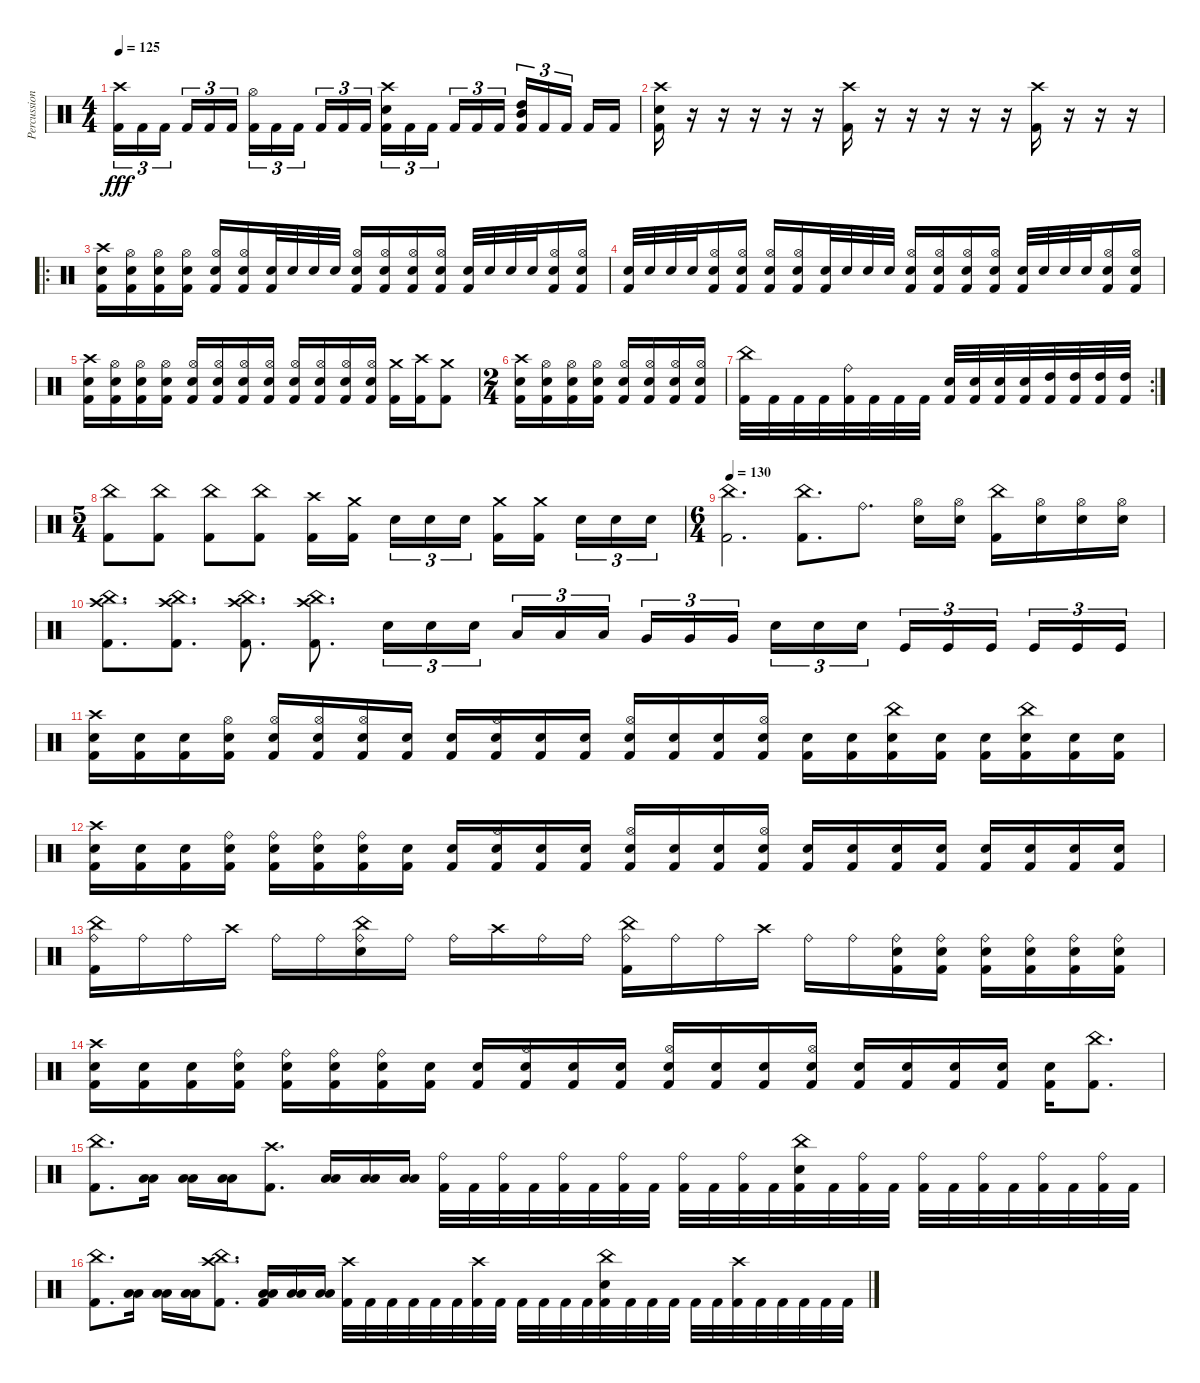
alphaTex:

\track ("Percussion" "Percussion") {instrument percussion}
\staff {score}
\articulation defaults
\ts (4 4)
\tempo 125
\clef neutral
\ks c
("Crash high (hit)" "Kick (hit) 2").16{tu (3 2) dy fff} "Kick (hit) 2".16{tu (3 2)} "Kick (hit) 2".16{tu (3 2) beam splitsecondary} "Kick (hit) 2".16{tu (3 2)} "Kick (hit) 2".16{tu (3 2)} "Kick (hit) 2".16{tu (3 2)} ("Hi-Hat (open)" "Kick (hit) 2").16{tu (3 2)} "Kick (hit) 2".16{tu (3 2)} "Kick (hit) 2".16{tu (3 2) beam splitsecondary} "Kick (hit) 2".16{tu (3 2)} "Kick (hit) 2".16{tu (3 2)} "Kick (hit) 2".16{tu (3 2)} ("Electric Snare (hit)" "Crash high (hit)" "Kick (hit) 2").16{tu (3 2)} "Kick (hit) 2".16{tu (3 2)} "Kick (hit) 2".16{tu (3 2) beam splitsecondary} "Kick (hit) 2".16{tu (3 2)} "Kick (hit) 2".16{tu (3 2)} "Kick (hit) 2".16{tu (3 2)} ("Mid Tom (hit)" "High Tom (hit)" "Kick (hit) 2").16{tu (3 2)} "Kick (hit) 2".16{tu (3 2)} "Kick (hit) 2".16{tu (3 2) beam splitsecondary} "Kick (hit) 2".16 "Kick (hit) 2".16 |
("Electric Snare (hit)" "Crash high (hit)" "Kick (hit) 2").16 r.16 r.16 r.16 r.16 r.16 ("Crash high (hit)" "Kick (hit) 2").16 r.16 r.16 r.16 r.16 r.16 ("Crash high (hit)" "Kick (hit) 2").16 r.16 r.16 r.16 |
\ro
("Electric Snare (hit)" "Crash high (hit)" "Kick (hit) 2").16 ("Electric Snare (hit)" "Hi-Hat (open)" "Kick (hit) 2").16 ("Electric Snare (hit)" "Hi-Hat (open)" "Kick (hit) 2").16 ("Electric Snare (hit)" "Hi-Hat (open)" "Kick (hit) 2").16 ("Electric Snare (hit)" "Hi-Hat (open)" "Kick (hit) 2").16 ("Electric Snare (hit)" "Hi-Hat (open)" "Kick (hit) 2").16 ("Electric Snare (hit)" "Kick (hit) 2").32 "Electric Snare (hit)".32 "Electric Snare (hit)".32 "Electric Snare (hit)".32 ("Electric Snare (hit)" "Hi-Hat (open)" "Kick (hit) 2").16 ("Electric Snare (hit)" "Hi-Hat (open)" "Kick (hit) 2").16 ("Electric Snare (hit)" "Hi-Hat (open)" "Kick (hit) 2").16 ("Electric Snare (hit)" "Hi-Hat (open)" "Kick (hit) 2").16 ("Electric Snare (hit)" "Kick (hit) 2").32 "Electric Snare (hit)".32 "Electric Snare (hit)".32 "Electric Snare (hit)".32 ("Electric Snare (hit)" "Hi-Hat (open)" "Kick (hit) 2").16 ("Electric Snare (hit)" "Hi-Hat (open)" "Kick (hit) 2").16 |
("Electric Snare (hit)" "Kick (hit) 2").32 "Electric Snare (hit)".32 "Electric Snare (hit)".32 "Electric Snare (hit)".32 ("Electric Snare (hit)" "Hi-Hat (open)" "Kick (hit) 2").16 ("Electric Snare (hit)" "Hi-Hat (open)" "Kick (hit) 2").16 ("Electric Snare (hit)" "Hi-Hat (open)" "Kick (hit) 2").16 ("Electric Snare (hit)" "Hi-Hat (open)" "Kick (hit) 2").16 ("Electric Snare (hit)" "Kick (hit) 2").32 "Electric Snare (hit)".32 "Electric Snare (hit)".32 "Electric Snare (hit)".32 ("Electric Snare (hit)" "Hi-Hat (open)" "Kick (hit) 2").16 ("Electric Snare (hit)" "Hi-Hat (open)" "Kick (hit) 2").16 ("Electric Snare (hit)" "Hi-Hat (open)" "Kick (hit) 2").16 ("Electric Snare (hit)" "Hi-Hat (open)" "Kick (hit) 2").16 ("Electric Snare (hit)" "Kick (hit) 2").32 "Electric Snare (hit)".32 "Electric Snare (hit)".32 "Electric Snare (hit)".32 ("Electric Snare (hit)" "Hi-Hat (open)" "Kick (hit) 2").16 ("Electric Snare (hit)" "Hi-Hat (open)" "Kick (hit) 2").16 |
("Electric Snare (hit)" "Crash high (hit)" "Kick (hit) 2").16 ("Electric Snare (hit)" "Hi-Hat (open)" "Kick (hit) 2").16 ("Electric Snare (hit)" "Hi-Hat (open)" "Kick (hit) 2").16 ("Electric Snare (hit)" "Hi-Hat (open)" "Kick (hit) 2").16 ("Electric Snare (hit)" "Hi-Hat (open)" "Kick (hit) 2").16 ("Electric Snare (hit)" "Hi-Hat (open)" "Kick (hit) 2").16 ("Electric Snare (hit)" "Hi-Hat (open)" "Kick (hit) 2").16 ("Electric Snare (hit)" "Hi-Hat (open)" "Kick (hit) 2").16 ("Electric Snare (hit)" "Hi-Hat (open)" "Kick (hit) 2").16 ("Electric Snare (hit)" "Hi-Hat (open)" "Kick (hit) 2").16 ("Electric Snare (hit)" "Hi-Hat (open)" "Kick (hit) 2").16 ("Electric Snare (hit)" "Hi-Hat (open)" "Kick (hit) 2").16 ("Crash medium (hit)" "Kick (hit) 2").16 ("Crash high (hit)" "Kick (hit) 2").16 ("Crash medium (hit)" "Kick (hit) 2").8 |
\ts (2 4)
("Electric Snare (hit)" "Crash high (hit)" "Kick (hit) 2").16 ("Electric Snare (hit)" "Hi-Hat (open)" "Kick (hit) 2").16 ("Electric Snare (hit)" "Hi-Hat (open)" "Kick (hit) 2").16 ("Electric Snare (hit)" "Hi-Hat (open)" "Kick (hit) 2").16 ("Electric Snare (hit)" "Hi-Hat (open)" "Kick (hit) 2").16 ("Electric Snare (hit)" "Hi-Hat (open)" "Kick (hit) 2").16 ("Electric Snare (hit)" "Hi-Hat (open)" "Kick (hit) 2").16 ("Electric Snare (hit)" "Hi-Hat (open)" "Kick (hit) 2").16 |
\rc 2
("China (hit)" "Kick (hit) 2").32 "Kick (hit) 2".32 "Kick (hit) 2".32 "Kick (hit) 2".32 ("Ride (bell)" "Kick (hit) 2").32 "Kick (hit) 2".32 "Kick (hit) 2".32 "Kick (hit) 2".32 ("Electric Snare (hit)" "Kick (hit) 2").32 ("Electric Snare (hit)" "Kick (hit) 2").32 ("Electric Snare (hit)" "Kick (hit) 2").32 ("Electric Snare (hit)" "Kick (hit) 2").32 ("High Tom (hit)" "Kick (hit) 2").32 ("High Tom (hit)" "Kick (hit) 2").32 ("High Tom (hit)" "Kick (hit) 2").32 ("High Tom (hit)" "Kick (hit) 2").32 |
\ts (5 4)
("Kick (hit) 2" "China (hit)").8 ("Kick (hit) 2" "China (hit)").8 ("Kick (hit) 2" "China (hit)").8 ("Kick (hit) 2" "China (hit)").8 ("Kick (hit) 2" "Crash high (hit)").16 ("Kick (hit) 2" "Crash medium (hit)").16{beam splitsecondary} "Electric Snare (hit)".16{tu (3 2)} "Electric Snare (hit)".16{tu (3 2)} "Electric Snare (hit)".16{tu (3 2)} ("Kick (hit) 2" "Crash medium (hit)").16 ("Kick (hit) 2" "Crash medium (hit)").16{beam splitsecondary} "Electric Snare (hit)".16{tu (3 2)} "Electric Snare (hit)".16{tu (3 2)} "Electric Snare (hit)".16{tu (3 2)} |
\ts (6 4)
\tempo 130
("Kick (hit) 2" "China (hit)").2{d} ("Kick (hit) 2" "China (hit)").8{d} "Ride (bell)".8{d} ("Electric Snare (hit)" "Hi-Hat (open)").16 ("Electric Snare (hit)" "Hi-Hat (open)").16 ("Kick (hit) 2" "China (hit)").16 ("Electric Snare (hit)" "Hi-Hat (open)").16 ("Electric Snare (hit)" "Hi-Hat (open)").16 ("Electric Snare (hit)" "Hi-Hat (open)").16 |
("Kick (hit) 2" "Crash high (hit)" "China (hit)").8{d} ("Kick (hit) 2" "Crash high (hit)" "China (hit)").8{d} ("Kick (hit) 2" "Crash high (hit)" "China (hit)").8{d} ("Kick (hit) 2" "Crash high (hit)" "China (hit)").8{d} "Electric Snare (hit)".16{tu (3 2)} "Electric Snare (hit)".16{tu (3 2)} "Electric Snare (hit)".16{tu (3 2) beam splitsecondary} "Low Tom (hit)".16{tu (3 2)} "Low Tom (hit)".16{tu (3 2)} "Low Tom (hit)".16{tu (3 2) beam splitsecondary} "Very Low Tom (hit)".16{tu (3 2)} "Very Low Tom (hit)".16{tu (3 2)} "Very Low Tom (hit)".16{tu (3 2) beam splitsecondary} "Electric Snare (hit)".16{tu (3 2)} "Electric Snare (hit)".16{tu (3 2)} "Electric Snare (hit)".16{tu (3 2) beam splitsecondary} "Kick (hit)".16{tu (3 2)} "Kick (hit)".16{tu (3 2)} "Kick (hit)".16{tu (3 2) beam splitsecondary} "Kick (hit)".16{tu (3 2)} "Kick (hit)".16{tu (3 2)} "Kick (hit)".16{tu (3 2)} |
("Kick (hit) 2" "Electric Snare (hit)" "Crash high (hit)").16 ("Kick (hit) 2" "Electric Snare (hit)").16 ("Kick (hit) 2" "Electric Snare (hit)").16 ("Kick (hit) 2" "Electric Snare (hit)" "Hi-Hat (open)").16 ("Kick (hit) 2" "Electric Snare (hit)" "Hi-Hat (open)").16 ("Kick (hit) 2" "Electric Snare (hit)" "Hi-Hat (open)").16 ("Kick (hit) 2" "Electric Snare (hit)" "Hi-Hat (open)").16 ("Kick (hit) 2" "Electric Snare (hit)").16 ("Kick (hit) 2" "Electric Snare (hit)").16 ("Kick (hit) 2" "Electric Snare (hit)" "Hi-Hat (open)").16 ("Kick (hit) 2" "Electric Snare (hit)").16 ("Kick (hit) 2" "Electric Snare (hit)").16 ("Kick (hit) 2" "Electric Snare (hit)" "Hi-Hat (open)").16 ("Kick (hit) 2" "Electric Snare (hit)").16 ("Kick (hit) 2" "Electric Snare (hit)").16 ("Kick (hit) 2" "Electric Snare (hit)" "Hi-Hat (open)").16 ("Kick (hit) 2" "Electric Snare (hit)").16 ("Kick (hit) 2" "Electric Snare (hit)").16 ("Kick (hit) 2" "Electric Snare (hit)" "China (hit)").16 ("Kick (hit) 2" "Electric Snare (hit)").16 ("Kick (hit) 2" "Electric Snare (hit)").16 ("Kick (hit) 2" "Electric Snare (hit)" "China (hit)").16 ("Kick (hit) 2" "Electric Snare (hit)").16 ("Kick (hit) 2" "Electric Snare (hit)").16 |
("Kick (hit) 2" "Electric Snare (hit)" "Crash high (hit)").16 ("Kick (hit) 2" "Electric Snare (hit)").16 ("Kick (hit) 2" "Electric Snare (hit)").16 ("Kick (hit) 2" "Electric Snare (hit)" "Ride (bell)").16 ("Kick (hit) 2" "Electric Snare (hit)" "Ride (bell)").16 ("Kick (hit) 2" "Electric Snare (hit)" "Ride (bell)").16 ("Kick (hit) 2" "Electric Snare (hit)" "Ride (bell)").16 ("Kick (hit) 2" "Electric Snare (hit)").16 ("Kick (hit) 2" "Electric Snare (hit)").16 ("Kick (hit) 2" "Electric Snare (hit)" "Hi-Hat (open)").16 ("Kick (hit) 2" "Electric Snare (hit)").16 ("Kick (hit) 2" "Electric Snare (hit)").16 ("Kick (hit) 2" "Electric Snare (hit)" "Hi-Hat (open)").16 ("Kick (hit) 2" "Electric Snare (hit)").16 ("Kick (hit) 2" "Electric Snare (hit)").16 ("Kick (hit) 2" "Electric Snare (hit)" "Hi-Hat (open)").16 ("Kick (hit) 2" "Electric Snare (hit)").16 ("Kick (hit) 2" "Electric Snare (hit)").16 ("Kick (hit) 2" "Electric Snare (hit)").16 ("Kick (hit) 2" "Electric Snare (hit)").16 ("Kick (hit) 2" "Electric Snare (hit)").16 ("Kick (hit) 2" "Electric Snare (hit)").16 ("Kick (hit) 2" "Electric Snare (hit)").16 ("Kick (hit) 2" "Electric Snare (hit)").16 |
("Kick (hit) 2" "Ride (bell)" "China (hit)").16 "Ride (bell)".16 "Ride (bell)".16 "Crash high (hit)".16 "Ride (bell)".16 "Ride (bell)".16 ("Ride (bell)" "Electric Snare (hit)" "China (hit)").16 "Ride (bell)".16 "Ride (bell)".16 "Crash high (hit)".16 "Ride (bell)".16 "Ride (bell)".16 ("Kick (hit) 2" "Ride (bell)" "China (hit)").16 "Ride (bell)".16 "Ride (bell)".16 "Crash high (hit)".16 "Ride (bell)".16 "Ride (bell)".16 ("Kick (hit) 2" "Ride (bell)" "Electric Snare (hit)").16 ("Kick (hit) 2" "Ride (bell)" "Electric Snare (hit)").16 ("Kick (hit) 2" "Ride (bell)" "Electric Snare (hit)").16 ("Kick (hit) 2" "Ride (bell)" "Electric Snare (hit)").16 ("Kick (hit) 2" "Ride (bell)" "Electric Snare (hit)").16 ("Kick (hit) 2" "Ride (bell)" "Electric Snare (hit)").16 |
("Kick (hit) 2" "Electric Snare (hit)" "Crash high (hit)").16 ("Kick (hit) 2" "Electric Snare (hit)").16 ("Kick (hit) 2" "Electric Snare (hit)").16 ("Kick (hit) 2" "Electric Snare (hit)" "Ride (bell)").16 ("Kick (hit) 2" "Electric Snare (hit)" "Ride (bell)").16 ("Kick (hit) 2" "Electric Snare (hit)" "Ride (bell)").16 ("Kick (hit) 2" "Electric Snare (hit)" "Ride (bell)").16 ("Kick (hit) 2" "Electric Snare (hit)").16 ("Kick (hit) 2" "Electric Snare (hit)").16 ("Kick (hit) 2" "Electric Snare (hit)" "Hi-Hat (open)").16 ("Kick (hit) 2" "Electric Snare (hit)").16 ("Kick (hit) 2" "Electric Snare (hit)").16 ("Kick (hit) 2" "Electric Snare (hit)" "Hi-Hat (open)").16 ("Kick (hit) 2" "Electric Snare (hit)").16 ("Kick (hit) 2" "Electric Snare (hit)").16 ("Kick (hit) 2" "Electric Snare (hit)" "Hi-Hat (open)").16 ("Kick (hit) 2" "Electric Snare (hit)").16 ("Kick (hit) 2" "Electric Snare (hit)").16 ("Kick (hit) 2" "Electric Snare (hit)").16 ("Kick (hit) 2" "Electric Snare (hit)").16 ("Kick (hit) 2" "Electric Snare (hit)").16 ("Kick (hit) 2" "China (hit)").8{d} |
("Kick (hit) 2" "China (hit)").8{d} ("Low Tom (hit)" "Low Tom (hit)").16 ("Low Tom (hit)" "Low Tom (hit)").16 ("Low Tom (hit)" "Low Tom (hit)").16 ("Crash high (hit)" "Kick (hit) 2").8{d} ("Low Tom (hit)" "Low Tom (hit)").16 ("Low Floor Tom (hit)" "Low Floor Tom (hit)").16 ("Low Floor Tom (hit)" "Low Floor Tom (hit)").16 ("Kick (hit) 2" "Ride (bell)").32 "Kick (hit) 2".32 ("Kick (hit) 2" "Ride (bell)").32 "Kick (hit) 2".32 ("Kick (hit) 2" "Ride (bell)").32 "Kick (hit) 2".32 ("Kick (hit) 2" "Ride (bell)").32 "Kick (hit) 2".32 ("Kick (hit) 2" "Ride (bell)").32 "Kick (hit) 2".32 ("Kick (hit) 2" "Ride (bell)").32 "Kick (hit) 2".32 ("Kick (hit) 2" "Electric Snare (hit)" "China (hit)").32 "Kick (hit) 2".32 ("Kick (hit) 2" "Ride (bell)").32 "Kick (hit) 2".32 ("Kick (hit) 2" "Ride (bell)").32 "Kick (hit) 2".32 ("Kick (hit) 2" "Ride (bell)").32 "Kick (hit) 2".32 ("Kick (hit) 2" "Ride (bell)").32 "Kick (hit) 2".32 ("Kick (hit) 2" "Ride (bell)").32 "Kick (hit) 2".32 |
("Kick (hit) 2" "China (hit)").8{d} ("Low Tom (hit)" "Low Tom (hit)").16 ("Low Tom (hit)" "Low Tom (hit)").16 ("Low Tom (hit)" "Low Tom (hit)").16 ("Kick (hit) 2" "China (hit)" "Crash high (hit)").8{d} ("Kick (hit) 2" "Low Tom (hit)" "Low Tom (hit)").16 ("Low Tom (hit)" "Low Tom (hit)").16 ("Low Floor Tom (hit)" "Low Floor Tom (hit)").16 ("Kick (hit) 2" "Crash high (hit)").32 "Kick (hit) 2".32 "Kick (hit) 2".32 "Kick (hit) 2".32 "Kick (hit) 2".32 "Kick (hit) 2".32 ("Kick (hit) 2" "Crash high (hit)").32 "Kick (hit) 2".32 "Kick (hit) 2".32 "Kick (hit) 2".32 "Kick (hit) 2".32 "Kick (hit) 2".32 ("Kick (hit) 2" "China (hit)" "Electric Snare (hit)").32 "Kick (hit) 2".32 "Kick (hit) 2".32 "Kick (hit) 2".32 "Kick (hit) 2".32 "Kick (hit) 2".32 ("Kick (hit) 2" "Crash high (hit)").32 "Kick (hit) 2".32 "Kick (hit) 2".32 "Kick (hit) 2".32 "Kick (hit) 2".32 "Kick (hit) 2".32
